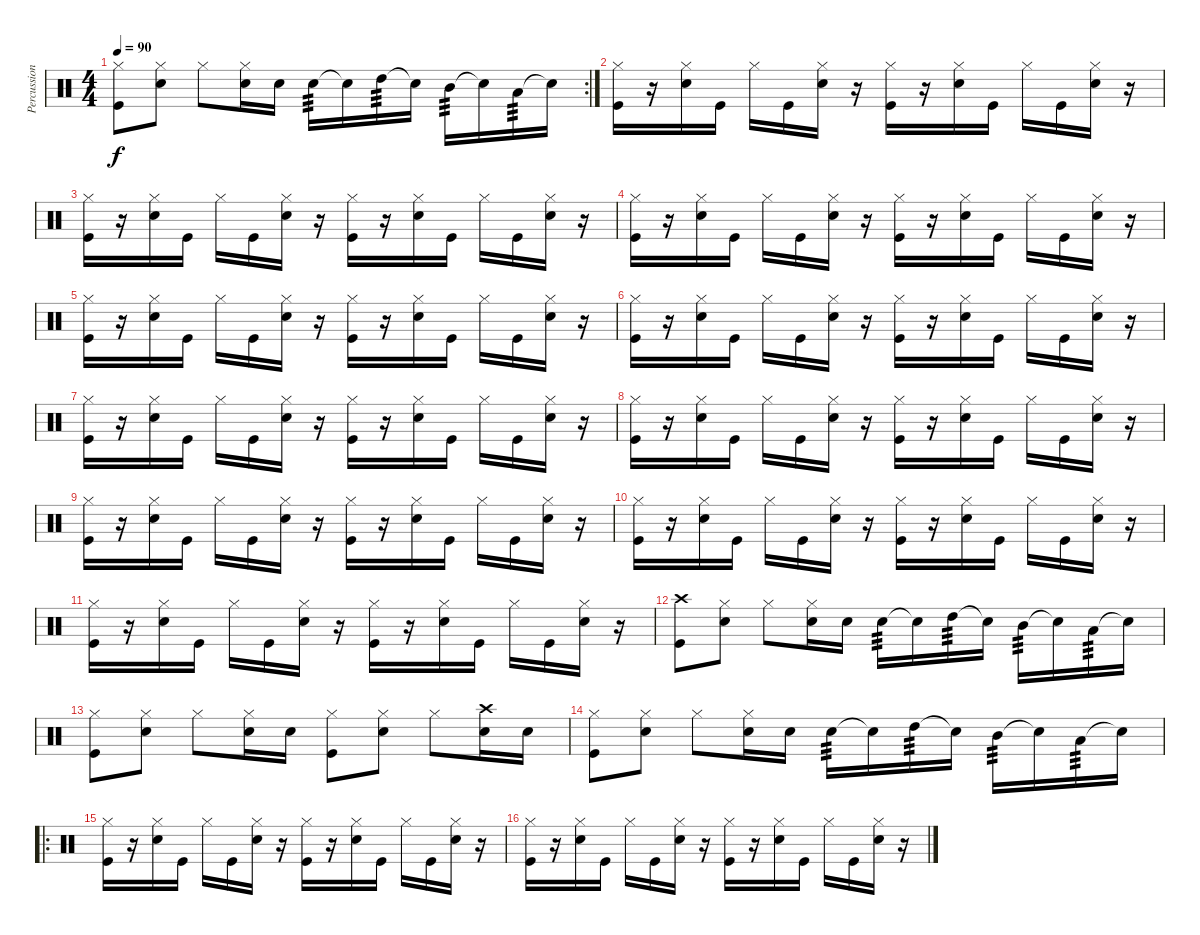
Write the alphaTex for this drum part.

\track ("Percussion" "Percussion") {instrument percussion}
\staff {score}
\articulation defaults
\rc 2
\ts (4 4)
\tempo 90
\clef neutral
\ks c
("Hi-Hat (closed)" "Kick (hit)").8{dy f volume 16} ("Hi-Hat (closed)" "Electric Snare (hit)").8 "Hi-Hat (closed)".8 ("Hi-Hat (closed)" "Electric Snare (hit)").16 "Electric Snare (hit)".16 "Electric Snare (hit)".16{tp 3} "Snare (hit)"{t}.16 "High Tom (hit)".16{tp 3} "Snare (hit)"{t}.16 "Mid Tom (hit)".16{tp 3} "Snare (hit)"{t}.16 "Low Tom (hit)".16{tp 3} "Snare (hit)"{t}.16 |
("Hi-Hat (closed)" "Kick (hit)").16 r.16 ("Hi-Hat (closed)" "Electric Snare (hit)").16 "Kick (hit)".16 "Hi-Hat (closed)".16 "Kick (hit)".16 ("Hi-Hat (closed)" "Electric Snare (hit)").16 r.16 ("Hi-Hat (closed)" "Kick (hit)").16 r.16 ("Hi-Hat (closed)" "Electric Snare (hit)").16 "Kick (hit)".16 "Hi-Hat (closed)".16 "Kick (hit)".16 ("Hi-Hat (closed)" "Electric Snare (hit)").16 r.16 |
("Hi-Hat (closed)" "Kick (hit)").16 r.16 ("Hi-Hat (closed)" "Electric Snare (hit)").16 "Kick (hit)".16 "Hi-Hat (closed)".16 "Kick (hit)".16 ("Hi-Hat (closed)" "Electric Snare (hit)").16 r.16 ("Hi-Hat (closed)" "Kick (hit)").16 r.16 ("Hi-Hat (closed)" "Electric Snare (hit)").16 "Kick (hit)".16 "Hi-Hat (closed)".16 "Kick (hit)".16 ("Hi-Hat (closed)" "Electric Snare (hit)").16 r.16 |
("Hi-Hat (closed)" "Kick (hit)").16 r.16 ("Hi-Hat (closed)" "Electric Snare (hit)").16 "Kick (hit)".16 "Hi-Hat (closed)".16 "Kick (hit)".16 ("Hi-Hat (closed)" "Electric Snare (hit)").16 r.16 ("Hi-Hat (closed)" "Kick (hit)").16 r.16 ("Hi-Hat (closed)" "Electric Snare (hit)").16 "Kick (hit)".16 "Hi-Hat (closed)".16 "Kick (hit)".16 ("Hi-Hat (closed)" "Electric Snare (hit)").16 r.16 |
("Hi-Hat (closed)" "Kick (hit)").16 r.16 ("Hi-Hat (closed)" "Electric Snare (hit)").16 "Kick (hit)".16 "Hi-Hat (closed)".16 "Kick (hit)".16 ("Hi-Hat (closed)" "Electric Snare (hit)").16 r.16 ("Hi-Hat (closed)" "Kick (hit)").16 r.16 ("Hi-Hat (closed)" "Electric Snare (hit)").16 "Kick (hit)".16 "Hi-Hat (closed)".16 "Kick (hit)".16 ("Hi-Hat (closed)" "Electric Snare (hit)").16 r.16 |
("Hi-Hat (closed)" "Kick (hit)").16 r.16 ("Hi-Hat (closed)" "Electric Snare (hit)").16 "Kick (hit)".16 "Hi-Hat (closed)".16 "Kick (hit)".16 ("Hi-Hat (closed)" "Electric Snare (hit)").16 r.16 ("Hi-Hat (closed)" "Kick (hit)").16 r.16 ("Hi-Hat (closed)" "Electric Snare (hit)").16 "Kick (hit)".16 "Hi-Hat (closed)".16 "Kick (hit)".16 ("Hi-Hat (closed)" "Electric Snare (hit)").16 r.16 |
("Hi-Hat (closed)" "Kick (hit)").16 r.16 ("Hi-Hat (closed)" "Electric Snare (hit)").16 "Kick (hit)".16 "Hi-Hat (closed)".16 "Kick (hit)".16 ("Hi-Hat (closed)" "Electric Snare (hit)").16 r.16 ("Hi-Hat (closed)" "Kick (hit)").16 r.16 ("Hi-Hat (closed)" "Electric Snare (hit)").16 "Kick (hit)".16 "Hi-Hat (closed)".16 "Kick (hit)".16 ("Hi-Hat (closed)" "Electric Snare (hit)").16 r.16 |
("Hi-Hat (closed)" "Kick (hit)").16 r.16 ("Hi-Hat (closed)" "Electric Snare (hit)").16 "Kick (hit)".16 "Hi-Hat (closed)".16 "Kick (hit)".16 ("Hi-Hat (closed)" "Electric Snare (hit)").16 r.16 ("Hi-Hat (closed)" "Kick (hit)").16 r.16 ("Hi-Hat (closed)" "Electric Snare (hit)").16 "Kick (hit)".16 "Hi-Hat (closed)".16 "Kick (hit)".16 ("Hi-Hat (closed)" "Electric Snare (hit)").16 r.16 |
("Hi-Hat (closed)" "Kick (hit)").16 r.16 ("Hi-Hat (closed)" "Electric Snare (hit)").16 "Kick (hit)".16 "Hi-Hat (closed)".16 "Kick (hit)".16 ("Hi-Hat (closed)" "Electric Snare (hit)").16 r.16 ("Hi-Hat (closed)" "Kick (hit)").16 r.16 ("Hi-Hat (closed)" "Electric Snare (hit)").16 "Kick (hit)".16 "Hi-Hat (closed)".16 "Kick (hit)".16 ("Hi-Hat (closed)" "Electric Snare (hit)").16 r.16 |
("Hi-Hat (closed)" "Kick (hit)").16 r.16 ("Hi-Hat (closed)" "Electric Snare (hit)").16 "Kick (hit)".16 "Hi-Hat (closed)".16 "Kick (hit)".16 ("Hi-Hat (closed)" "Electric Snare (hit)").16 r.16 ("Hi-Hat (closed)" "Kick (hit)").16 r.16 ("Hi-Hat (closed)" "Electric Snare (hit)").16 "Kick (hit)".16 "Hi-Hat (closed)".16 "Kick (hit)".16 ("Hi-Hat (closed)" "Electric Snare (hit)").16 r.16 |
("Hi-Hat (closed)" "Kick (hit)").16 r.16 ("Hi-Hat (closed)" "Electric Snare (hit)").16 "Kick (hit)".16 "Hi-Hat (closed)".16 "Kick (hit)".16 ("Hi-Hat (closed)" "Electric Snare (hit)").16 r.16 ("Hi-Hat (closed)" "Kick (hit)").16 r.16 ("Hi-Hat (closed)" "Electric Snare (hit)").16 "Kick (hit)".16 "Hi-Hat (closed)".16 "Kick (hit)".16 ("Hi-Hat (closed)" "Electric Snare (hit)").16 r.16 |
("Crash high (hit)" "Kick (hit)").8{volume 16} ("Hi-Hat (closed)" "Electric Snare (hit)").8 "Hi-Hat (closed)".8 ("Hi-Hat (closed)" "Electric Snare (hit)").16 "Electric Snare (hit)".16 "Electric Snare (hit)".16{tp 3} "Snare (hit)"{t}.16 "High Tom (hit)".16{tp 3} "Snare (hit)"{t}.16 "Mid Tom (hit)".16{tp 3} "Snare (hit)"{t}.16 "Low Tom (hit)".16{tp 3} "Snare (hit)"{t}.16 |
("Hi-Hat (closed)" "Kick (hit)").8{volume 16} ("Hi-Hat (closed)" "Electric Snare (hit)").8 "Hi-Hat (closed)".8 ("Hi-Hat (closed)" "Electric Snare (hit)").16 "Electric Snare (hit)".16 ("Hi-Hat (closed)" "Kick (hit)").8 ("Hi-Hat (closed)" "Electric Snare (hit)").8 "Hi-Hat (closed)".8 ("Crash high (hit)" "Electric Snare (hit)").16 "Electric Snare (hit)".16 |
("Hi-Hat (closed)" "Kick (hit)").8{volume 16} ("Hi-Hat (closed)" "Electric Snare (hit)").8 "Hi-Hat (closed)".8 ("Hi-Hat (closed)" "Electric Snare (hit)").16 "Electric Snare (hit)".16 "Electric Snare (hit)".16{tp 3} "Snare (hit)"{t}.16 "High Tom (hit)".16{tp 3} "Snare (hit)"{t}.16 "Mid Tom (hit)".16{tp 3} "Snare (hit)"{t}.16 "Low Tom (hit)".16{tp 3} "Snare (hit)"{t}.16 |
\ro
("Hi-Hat (closed)" "Kick (hit)").16{volume 13} r.16 ("Hi-Hat (closed)" "Electric Snare (hit)").16 "Kick (hit)".16 "Hi-Hat (closed)".16 "Kick (hit)".16 ("Hi-Hat (closed)" "Electric Snare (hit)").16 r.16 ("Hi-Hat (closed)" "Kick (hit)").16 r.16 ("Hi-Hat (closed)" "Electric Snare (hit)").16 "Kick (hit)".16 "Hi-Hat (closed)".16 "Kick (hit)".16 ("Hi-Hat (closed)" "Electric Snare (hit)").16 r.16 |
("Hi-Hat (closed)" "Kick (hit)").16 r.16 ("Hi-Hat (closed)" "Electric Snare (hit)").16 "Kick (hit)".16 "Hi-Hat (closed)".16 "Kick (hit)".16 ("Hi-Hat (closed)" "Electric Snare (hit)").16 r.16 ("Hi-Hat (closed)" "Kick (hit)").16 r.16 ("Hi-Hat (closed)" "Electric Snare (hit)").16 "Kick (hit)".16 "Hi-Hat (closed)".16 "Kick (hit)".16 ("Hi-Hat (closed)" "Electric Snare (hit)").16 r.16
